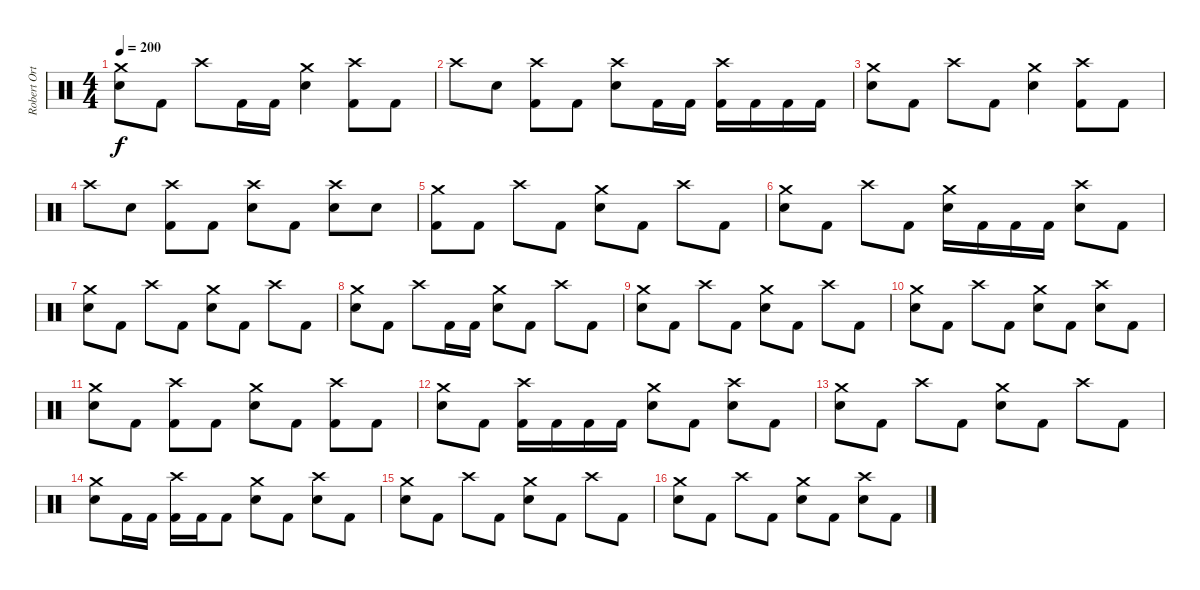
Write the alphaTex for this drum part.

\track ("Robert Ortiz - Drums" "Robert Ort") {instrument percussion}
\staff {score}
\articulation defaults
\ts (4 4)
\tempo 200
\clef neutral
\ks c
("Crash medium (hit)" "Electric Snare (hit)").8{dy f} "Kick (hit) 2".8 "Crash high (hit)".8 "Kick (hit) 2".16 "Kick (hit) 2".16 ("Crash medium (hit)" "Electric Snare (hit)").4 ("Crash high (hit)" "Kick (hit) 2").8 "Kick (hit) 2".8 |
"Crash high (hit)".8 "Electric Snare (hit)".8 ("Crash high (hit)" "Kick (hit) 2").8 "Kick (hit) 2".8 ("Crash high (hit)" "Electric Snare (hit)").8 "Kick (hit) 2".16 "Kick (hit) 2".16 ("Crash high (hit)" "Kick (hit) 2").16 "Kick (hit) 2".16 "Kick (hit) 2".16 "Kick (hit) 2".16 |
("Crash medium (hit)" "Electric Snare (hit)").8 "Kick (hit) 2".8 "Crash high (hit)".8 "Kick (hit) 2".8 ("Crash medium (hit)" "Electric Snare (hit)").4 ("Crash high (hit)" "Kick (hit) 2").8 "Kick (hit) 2".8 |
"Crash high (hit)".8 "Electric Snare (hit)".8 ("Crash high (hit)" "Kick (hit) 2").8 "Kick (hit) 2".8 ("Crash high (hit)" "Electric Snare (hit)").8 "Kick (hit) 2".8 ("Crash high (hit)" "Electric Snare (hit)").8 "Electric Snare (hit)".8 |
("Crash medium (hit)" "Kick (hit) 2").8 "Kick (hit) 2".8 "Crash high (hit)".8 "Kick (hit) 2".8 ("Crash medium (hit)" "Electric Snare (hit)").8 "Kick (hit) 2".8 "Crash high (hit)".8 "Kick (hit) 2".8 |
("Crash medium (hit)" "Electric Snare (hit)").8 "Kick (hit) 2".8 "Crash high (hit)".8 "Kick (hit) 2".8 ("Crash medium (hit)" "Electric Snare (hit)").16 "Kick (hit) 2".16 "Kick (hit) 2".16 "Kick (hit) 2".16 ("Crash high (hit)" "Electric Snare (hit)").8 "Kick (hit) 2".8 |
("Crash medium (hit)" "Electric Snare (hit)").8 "Kick (hit) 2".8 "Crash high (hit)".8 "Kick (hit) 2".8 ("Crash medium (hit)" "Electric Snare (hit)").8 "Kick (hit) 2".8 "Crash high (hit)".8 "Kick (hit) 2".8 |
("Crash medium (hit)" "Electric Snare (hit)").8 "Kick (hit) 2".8 "Crash high (hit)".8 "Kick (hit) 2".16 "Kick (hit) 2".16 ("Crash medium (hit)" "Electric Snare (hit)").8 "Kick (hit) 2".8 "Crash high (hit)".8 "Kick (hit) 2".8 |
("Crash medium (hit)" "Electric Snare (hit)").8 "Kick (hit) 2".8 "Crash high (hit)".8 "Kick (hit) 2".8 ("Crash medium (hit)" "Electric Snare (hit)").8 "Kick (hit) 2".8 "Crash high (hit)".8 "Kick (hit) 2".8 |
("Crash medium (hit)" "Electric Snare (hit)").8 "Kick (hit) 2".8 "Crash high (hit)".8 "Kick (hit) 2".8 ("Crash medium (hit)" "Electric Snare (hit)").8 "Kick (hit) 2".8 ("Crash high (hit)" "Electric Snare (hit)").8 "Kick (hit) 2".8 |
("Crash medium (hit)" "Electric Snare (hit)").8 "Kick (hit) 2".8 ("Crash high (hit)" "Kick (hit) 2").8 "Kick (hit) 2".8 ("Crash medium (hit)" "Electric Snare (hit)").8 "Kick (hit) 2".8 ("Crash high (hit)" "Kick (hit) 2").8 "Kick (hit) 2".8 |
("Crash medium (hit)" "Electric Snare (hit)").8 "Kick (hit) 2".8 ("Crash high (hit)" "Kick (hit) 2").16 "Kick (hit) 2".16 "Kick (hit) 2".16 "Kick (hit) 2".16 ("Crash medium (hit)" "Electric Snare (hit)").8 "Kick (hit) 2".8 ("Crash high (hit)" "Electric Snare (hit)").8 "Kick (hit) 2".8 |
("Crash medium (hit)" "Electric Snare (hit)").8 "Kick (hit) 2".8 "Crash high (hit)".8 "Kick (hit) 2".8 ("Crash medium (hit)" "Electric Snare (hit)").8 "Kick (hit) 2".8 "Crash high (hit)".8 "Kick (hit) 2".8 |
("Crash medium (hit)" "Electric Snare (hit)").8 "Kick (hit) 2".16 "Kick (hit) 2".16 ("Crash high (hit)" "Kick (hit) 2").16 "Kick (hit) 2".16 "Kick (hit) 2".8 ("Crash medium (hit)" "Electric Snare (hit)").8 "Kick (hit) 2".8 ("Crash high (hit)" "Electric Snare (hit)").8 "Kick (hit) 2".8 |
("Crash medium (hit)" "Electric Snare (hit)").8 "Kick (hit) 2".8 "Crash high (hit)".8 "Kick (hit) 2".8 ("Crash medium (hit)" "Electric Snare (hit)").8 "Kick (hit) 2".8 "Crash high (hit)".8 "Kick (hit) 2".8 |
("Crash medium (hit)" "Electric Snare (hit)").8 "Kick (hit) 2".8 "Crash high (hit)".8 "Kick (hit) 2".8 ("Crash medium (hit)" "Electric Snare (hit)").8 "Kick (hit) 2".8 ("Crash high (hit)" "Electric Snare (hit)").8 "Kick (hit) 2".8
